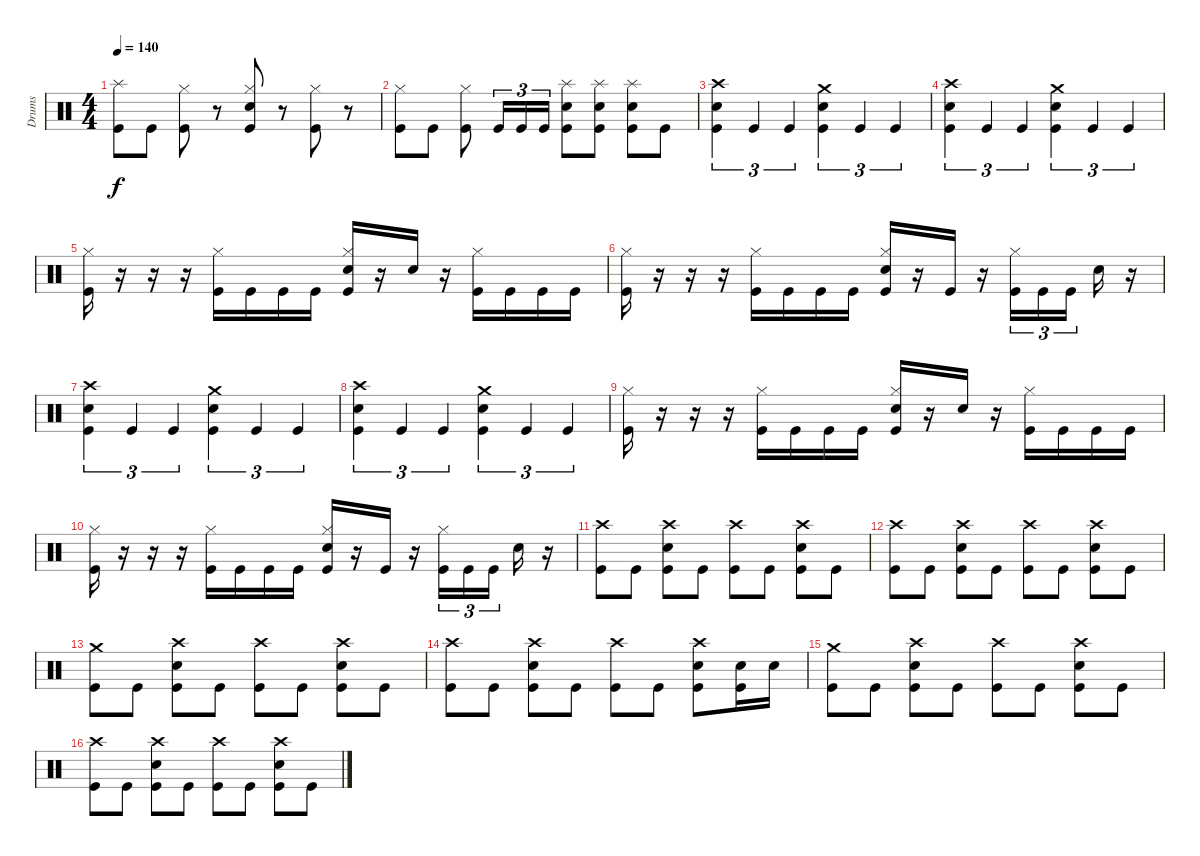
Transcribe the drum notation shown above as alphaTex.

\track ("Drums" "Drums") {instrument percussion}
\staff {score}
\articulation defaults
\ts (4 4)
\tempo 140
\clef neutral
\ks c
("Splash (hit)" "Kick (hit)").8{dy f} "Kick (hit)".8 ("Hi-Hat (closed)" "Kick (hit)").8 r.8 ("Hi-Hat (closed)" "Snare (hit) 2" "Kick (hit)").8 r.8 ("Hi-Hat (closed)" "Kick (hit)").8 r.8 |
("Hi-Hat (closed)" "Kick (hit)").8 "Kick (hit)".8 ("Hi-Hat (closed)" "Kick (hit)").8 "Kick (hit)".16{tu (3 2)} "Kick (hit)".16{tu (3 2)} "Kick (hit)".16{tu (3 2)} ("Splash (hit)" "Snare (hit) 2" "Kick (hit)").8 ("Splash (hit)" "Snare (hit) 2" "Kick (hit)").8 ("Splash (hit)" "Snare (hit) 2" "Kick (hit)").8 "Kick (hit)".8 |
("Crash high (hit)" "Snare (hit) 2" "Kick (hit)").4{tu (3 2)} "Kick (hit)".4{tu (3 2)} "Kick (hit)".4{tu (3 2)} ("Crash medium (hit)" "Snare (hit) 2" "Kick (hit)").4{tu (3 2)} "Kick (hit)".4{tu (3 2)} "Kick (hit)".4{tu (3 2)} |
("Crash high (hit)" "Snare (hit) 2" "Kick (hit)").4{tu (3 2)} "Kick (hit)".4{tu (3 2)} "Kick (hit)".4{tu (3 2)} ("Crash medium (hit)" "Snare (hit) 2" "Kick (hit)").4{tu (3 2)} "Kick (hit)".4{tu (3 2)} "Kick (hit)".4{tu (3 2)} |
("Hi-Hat (closed)" "Kick (hit)").16 r.16 r.16 r.16 ("Hi-Hat (closed)" "Kick (hit)").16 "Kick (hit)".16 "Kick (hit)".16 "Kick (hit)".16 ("Hi-Hat (closed)" "Snare (hit) 2" "Kick (hit)").16 r.16 "Snare (hit) 2".16 r.16 ("Hi-Hat (closed)" "Kick (hit)").16 "Kick (hit)".16 "Kick (hit)".16 "Kick (hit)".16 |
("Hi-Hat (closed)" "Kick (hit)").16 r.16 r.16 r.16 ("Hi-Hat (closed)" "Kick (hit)").16 "Kick (hit)".16 "Kick (hit)".16 "Kick (hit)".16 ("Hi-Hat (closed)" "Snare (hit) 2" "Kick (hit)").16 r.16 "Kick (hit)".16 r.16 ("Hi-Hat (closed)" "Kick (hit)").16{tu (3 2)} "Kick (hit)".16{tu (3 2)} "Kick (hit)".16{tu (3 2)} "Snare (hit) 2".16 r.16 |
("Crash high (hit)" "Snare (hit) 2" "Kick (hit)").4{tu (3 2)} "Kick (hit)".4{tu (3 2)} "Kick (hit)".4{tu (3 2)} ("Crash medium (hit)" "Snare (hit) 2" "Kick (hit)").4{tu (3 2)} "Kick (hit)".4{tu (3 2)} "Kick (hit)".4{tu (3 2)} |
("Crash high (hit)" "Snare (hit) 2" "Kick (hit)").4{tu (3 2)} "Kick (hit)".4{tu (3 2)} "Kick (hit)".4{tu (3 2)} ("Crash medium (hit)" "Snare (hit) 2" "Kick (hit)").4{tu (3 2)} "Kick (hit)".4{tu (3 2)} "Kick (hit)".4{tu (3 2)} |
("Hi-Hat (closed)" "Kick (hit)").16 r.16 r.16 r.16 ("Hi-Hat (closed)" "Kick (hit)").16 "Kick (hit)".16 "Kick (hit)".16 "Kick (hit)".16 ("Hi-Hat (closed)" "Snare (hit) 2" "Kick (hit)").16 r.16 "Snare (hit) 2".16 r.16 ("Hi-Hat (closed)" "Kick (hit)").16 "Kick (hit)".16 "Kick (hit)".16 "Kick (hit)".16 |
("Hi-Hat (closed)" "Kick (hit)").16 r.16 r.16 r.16 ("Hi-Hat (closed)" "Kick (hit)").16 "Kick (hit)".16 "Kick (hit)".16 "Kick (hit)".16 ("Hi-Hat (closed)" "Snare (hit) 2" "Kick (hit)").16 r.16 "Kick (hit)".16 r.16 ("Hi-Hat (closed)" "Kick (hit)").16{tu (3 2)} "Kick (hit)".16{tu (3 2)} "Kick (hit)".16{tu (3 2)} "Snare (hit) 2".16 r.16 |
("Crash high (hit)" "Kick (hit)").8 "Kick (hit)".8 ("Crash high (hit)" "Snare (hit) 2" "Kick (hit)").8 "Kick (hit)".8 ("Crash high (hit)" "Kick (hit)").8 "Kick (hit)".8 ("Crash high (hit)" "Snare (hit) 2" "Kick (hit)").8 "Kick (hit)".8 |
("Crash high (hit)" "Kick (hit)").8 "Kick (hit)".8 ("Crash high (hit)" "Snare (hit) 2" "Kick (hit)").8 "Kick (hit)".8 ("Crash high (hit)" "Kick (hit)").8 "Kick (hit)".8 ("Crash high (hit)" "Snare (hit) 2" "Kick (hit)").8 "Kick (hit)".8 |
("Crash medium (hit)" "Kick (hit)").8 "Kick (hit)".8 ("Crash high (hit)" "Snare (hit) 2" "Kick (hit)").8 "Kick (hit)".8 ("Crash high (hit)" "Kick (hit)").8 "Kick (hit)".8 ("Crash high (hit)" "Snare (hit) 2" "Kick (hit)").8 "Kick (hit)".8 |
("Crash high (hit)" "Kick (hit)").8 "Kick (hit)".8 ("Crash high (hit)" "Snare (hit) 2" "Kick (hit)").8 "Kick (hit)".8 ("Crash high (hit)" "Kick (hit)").8 "Kick (hit)".8 ("Crash high (hit)" "Snare (hit) 2" "Kick (hit)").8 ("Snare (hit) 2" "Kick (hit)").16 "Snare (hit) 2".16 |
("Crash medium (hit)" "Kick (hit)").8 "Kick (hit)".8 ("Crash high (hit)" "Snare (hit) 2" "Kick (hit)").8 "Kick (hit)".8 ("Crash high (hit)" "Kick (hit)").8 "Kick (hit)".8 ("Crash high (hit)" "Snare (hit) 2" "Kick (hit)").8 "Kick (hit)".8 |
("Crash high (hit)" "Kick (hit)").8 "Kick (hit)".8 ("Crash high (hit)" "Snare (hit) 2" "Kick (hit)").8 "Kick (hit)".8 ("Crash high (hit)" "Kick (hit)").8 "Kick (hit)".8 ("Crash high (hit)" "Snare (hit) 2" "Kick (hit)").8 "Kick (hit)".8
